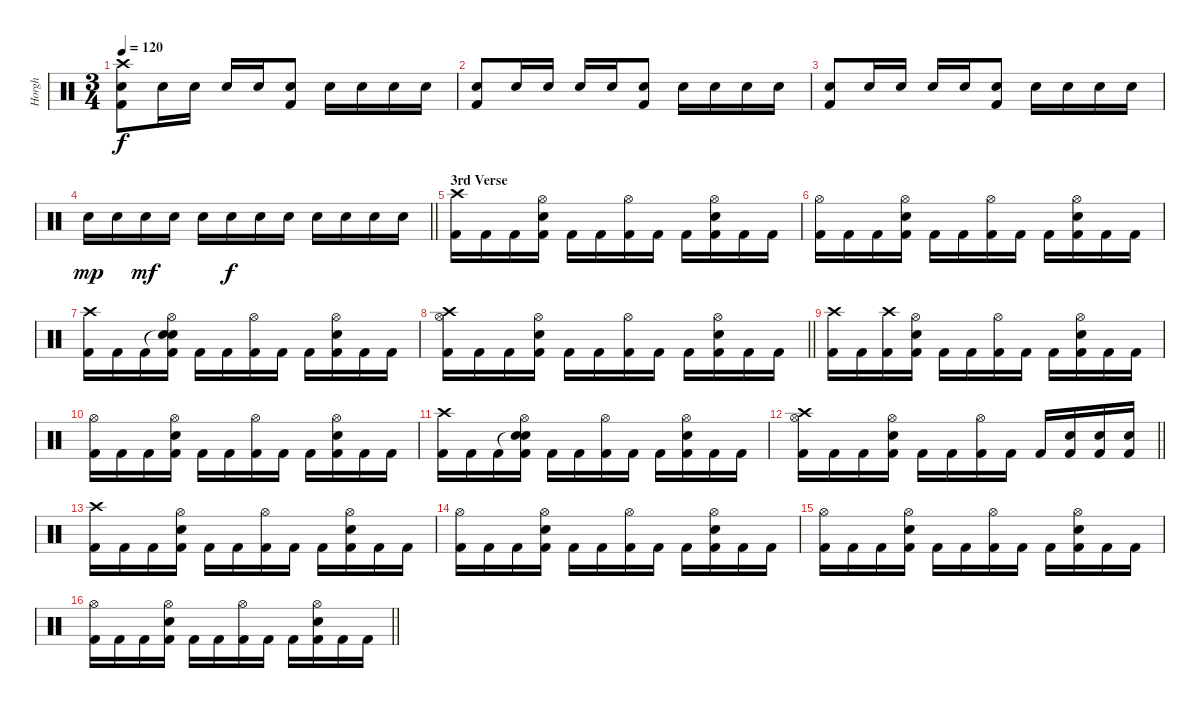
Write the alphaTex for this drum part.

\track ("Horgh" "Horgh") {instrument percussion}
\staff {score}
\articulation defaults
\ts (3 4)
\tempo 120
\clef neutral
\ks c
("Crash high (hit)" "Snare (hit) 2" "Kick (hit) 2").8{dy f} "Snare (hit) 2".16 "Snare (hit) 2".16 "Snare (hit) 2".16 "Snare (hit) 2".16 ("Snare (hit) 2" "Kick (hit) 2").8 "Snare (hit) 2".16 "Snare (hit) 2".16 "Snare (hit) 2".16 "Snare (hit) 2".16 |
("Snare (hit) 2" "Kick (hit) 2").8 "Snare (hit) 2".16 "Snare (hit) 2".16 "Snare (hit) 2".16 "Snare (hit) 2".16 ("Snare (hit) 2" "Kick (hit) 2").8 "Snare (hit) 2".16 "Snare (hit) 2".16 "Snare (hit) 2".16 "Snare (hit) 2".16 |
("Snare (hit) 2" "Kick (hit) 2").8 "Snare (hit) 2".16 "Snare (hit) 2".16 "Snare (hit) 2".16 "Snare (hit) 2".16 ("Snare (hit) 2" "Kick (hit) 2").8 "Snare (hit) 2".16 "Snare (hit) 2".16 "Snare (hit) 2".16 "Snare (hit) 2".16 |
\barLineRight lightlight "Snare (hit) 2".16{dy mp} "Snare (hit) 2".16 "Snare (hit) 2".16{dy mf} "Snare (hit) 2".16 "Snare (hit) 2".16 "Snare (hit) 2".16{dy f} "Snare (hit) 2".16 "Snare (hit) 2".16 "Snare (hit) 2".16 "Snare (hit) 2".16 "Snare (hit) 2".16 "Snare (hit) 2".16
|
\section ("" "3rd Verse")
("Crash high (hit)" "Kick (hit) 2").16 "Kick (hit) 2".16 "Kick (hit) 2".16 ("Snare (hit) 2" "Hi-Hat (open)" "Kick (hit) 2").16 "Kick (hit) 2".16 "Kick (hit) 2".16 ("Hi-Hat (open)" "Kick (hit) 2").16 "Kick (hit) 2".16 "Kick (hit) 2".16 ("Snare (hit) 2" "Hi-Hat (open)" "Kick (hit) 2").16 "Kick (hit) 2".16 "Kick (hit) 2".16 |
("Hi-Hat (open)" "Kick (hit) 2").16 "Kick (hit) 2".16 "Kick (hit) 2".16 ("Snare (hit) 2" "Hi-Hat (open)" "Kick (hit) 2").16 "Kick (hit) 2".16 "Kick (hit) 2".16 ("Hi-Hat (open)" "Kick (hit) 2").16 "Kick (hit) 2".16 "Kick (hit) 2".16 ("Snare (hit) 2" "Hi-Hat (open)" "Kick (hit) 2").16 "Kick (hit) 2".16 "Kick (hit) 2".16 |
("Crash high (hit)" "Kick (hit) 2").16 "Kick (hit) 2".16 "Kick (hit) 2".16 ("Snare (hit)"{t} "Snare (hit) 2" "Hi-Hat (open)" "Kick (hit) 2").16 "Kick (hit) 2".16 "Kick (hit) 2".16 ("Hi-Hat (open)" "Kick (hit) 2").16 "Kick (hit) 2".16 "Kick (hit) 2".16 ("Snare (hit) 2" "Hi-Hat (open)" "Kick (hit) 2").16 "Kick (hit) 2".16 "Kick (hit) 2".16 |
\barLineRight lightlight
("Crash high (hit)" "Hi-Hat (open)" "Kick (hit) 2").16 "Kick (hit) 2".16 "Kick (hit) 2".16 ("Snare (hit) 2" "Hi-Hat (open)" "Kick (hit) 2").16 "Kick (hit) 2".16 "Kick (hit) 2".16 ("Hi-Hat (open)" "Kick (hit) 2").16 "Kick (hit) 2".16 "Kick (hit) 2".16 ("Snare (hit) 2" "Hi-Hat (open)" "Kick (hit) 2").16 "Kick (hit) 2".16 "Kick (hit) 2".16 |
("Crash high (hit)" "Kick (hit) 2").16 "Kick (hit) 2".16 ("Crash high (hit)" "Kick (hit) 2").16 ("Snare (hit) 2" "Hi-Hat (open)" "Kick (hit) 2").16 "Kick (hit) 2".16 "Kick (hit) 2".16 ("Hi-Hat (open)" "Kick (hit) 2").16 "Kick (hit) 2".16 "Kick (hit) 2".16 ("Snare (hit) 2" "Hi-Hat (open)" "Kick (hit) 2").16 "Kick (hit) 2".16 "Kick (hit) 2".16 |
("Hi-Hat (open)" "Kick (hit) 2").16 "Kick (hit) 2".16 "Kick (hit) 2".16 ("Snare (hit) 2" "Hi-Hat (open)" "Kick (hit) 2").16 "Kick (hit) 2".16 "Kick (hit) 2".16 ("Hi-Hat (open)" "Kick (hit) 2").16 "Kick (hit) 2".16 "Kick (hit) 2".16 ("Snare (hit) 2" "Hi-Hat (open)" "Kick (hit) 2").16 "Kick (hit) 2".16 "Kick (hit) 2".16 |
("Crash high (hit)" "Kick (hit) 2").16 "Kick (hit) 2".16 "Kick (hit) 2".16 ("Snare (hit)"{t} "Snare (hit) 2" "Hi-Hat (open)" "Kick (hit) 2").16 "Kick (hit) 2".16 "Kick (hit) 2".16 ("Hi-Hat (open)" "Kick (hit) 2").16 "Kick (hit) 2".16 "Kick (hit) 2".16 ("Snare (hit) 2" "Hi-Hat (open)" "Kick (hit) 2").16 "Kick (hit) 2".16 "Kick (hit) 2".16 |
\barLineRight lightlight
("Crash high (hit)" "Hi-Hat (open)" "Kick (hit) 2").16 "Kick (hit) 2".16 "Kick (hit) 2".16 ("Snare (hit) 2" "Hi-Hat (open)" "Kick (hit) 2").16 "Kick (hit) 2".16 "Kick (hit) 2".16 ("Hi-Hat (open)" "Kick (hit) 2").16 "Kick (hit) 2".16 "Kick (hit) 2".16 ("Snare (hit) 2" "Kick (hit) 2").16 ("Snare (hit) 2" "Kick (hit) 2").16 ("Snare (hit) 2" "Kick (hit) 2").16 |
("Crash high (hit)" "Kick (hit) 2").16 "Kick (hit) 2".16 "Kick (hit) 2".16 ("Snare (hit) 2" "Hi-Hat (open)" "Kick (hit) 2").16 "Kick (hit) 2".16 "Kick (hit) 2".16 ("Hi-Hat (open)" "Kick (hit) 2").16 "Kick (hit) 2".16 "Kick (hit) 2".16 ("Snare (hit) 2" "Hi-Hat (open)" "Kick (hit) 2").16 "Kick (hit) 2".16 "Kick (hit) 2".16 |
("Hi-Hat (open)" "Kick (hit) 2").16 "Kick (hit) 2".16 "Kick (hit) 2".16 ("Snare (hit) 2" "Hi-Hat (open)" "Kick (hit) 2").16 "Kick (hit) 2".16 "Kick (hit) 2".16 ("Hi-Hat (open)" "Kick (hit) 2").16 "Kick (hit) 2".16 "Kick (hit) 2".16 ("Snare (hit) 2" "Hi-Hat (open)" "Kick (hit) 2").16 "Kick (hit) 2".16 "Kick (hit) 2".16 |
("Hi-Hat (open)" "Kick (hit) 2").16 "Kick (hit) 2".16 "Kick (hit) 2".16 ("Snare (hit) 2" "Hi-Hat (open)" "Kick (hit) 2").16 "Kick (hit) 2".16 "Kick (hit) 2".16 ("Hi-Hat (open)" "Kick (hit) 2").16 "Kick (hit) 2".16 "Kick (hit) 2".16 ("Snare (hit) 2" "Hi-Hat (open)" "Kick (hit) 2").16 "Kick (hit) 2".16 "Kick (hit) 2".16 |
\barLineRight lightlight
("Hi-Hat (open)" "Kick (hit) 2").16 "Kick (hit) 2".16 "Kick (hit) 2".16 ("Snare (hit) 2" "Hi-Hat (open)" "Kick (hit) 2").16 "Kick (hit) 2".16 "Kick (hit) 2".16 ("Hi-Hat (open)" "Kick (hit) 2").16 "Kick (hit) 2".16 "Kick (hit) 2".16 ("Snare (hit) 2" "Hi-Hat (open)" "Kick (hit) 2").16 "Kick (hit) 2".16 "Kick (hit) 2".16
